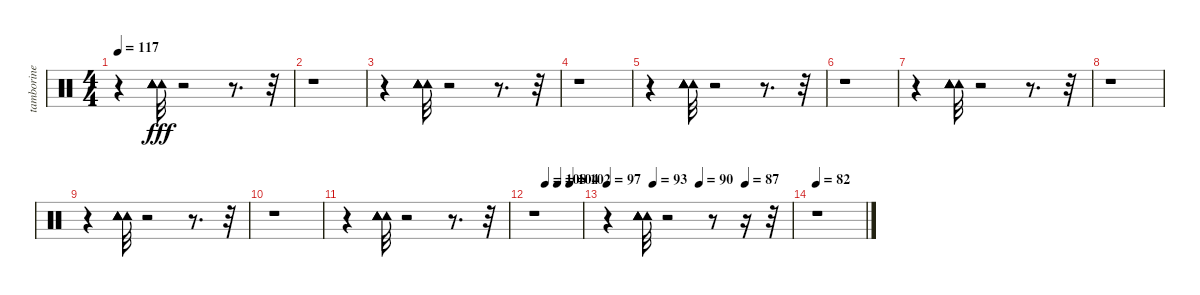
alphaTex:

\track ("tamborine" "tamborine") {instrument percussion}
\staff {score}
\articulation defaults
\ts (4 4)
\tempo 117
\clef neutral
\ks c
r.4{dy fff} ("Tambourine (hit)" "Tambourine (hit)" "Tambourine (hit)" "Tambourine (hit)").32 r.2 r.8{d} r.32 |
r.1 |
r.4 ("Tambourine (hit)" "Tambourine (hit)" "Tambourine (hit)" "Tambourine (hit)").32 r.2 r.8{d} r.32 |
r.1 |
r.4 ("Tambourine (hit)" "Tambourine (hit)" "Tambourine (hit)" "Tambourine (hit)").32 r.2 r.8{d} r.32 |
r.1 |
r.4 ("Tambourine (hit)" "Tambourine (hit)" "Tambourine (hit)" "Tambourine (hit)").32 r.2 r.8{d} r.32 |
r.1 |
r.4 ("Tambourine (hit)" "Tambourine (hit)" "Tambourine (hit)" "Tambourine (hit)").32 r.2 r.8{d} r.32 |
r.1 |
r.4 ("Tambourine (hit)" "Tambourine (hit)" "Tambourine (hit)" "Tambourine (hit)").32 r.2 r.8{d} r.32 |
\tempo (108 0.25)
\tempo (104 0.5)
\tempo (102 0.75)
r.1 |
\tempo 97
\tempo (93 0.25)
\tempo (90 0.5)
\tempo (87 0.75)
r.4 ("Tambourine (hit)" "Tambourine (hit)" "Tambourine (hit)" "Tambourine (hit)").32 r.2 r.8 r.16 r.32 |
\tempo 82
r.1
